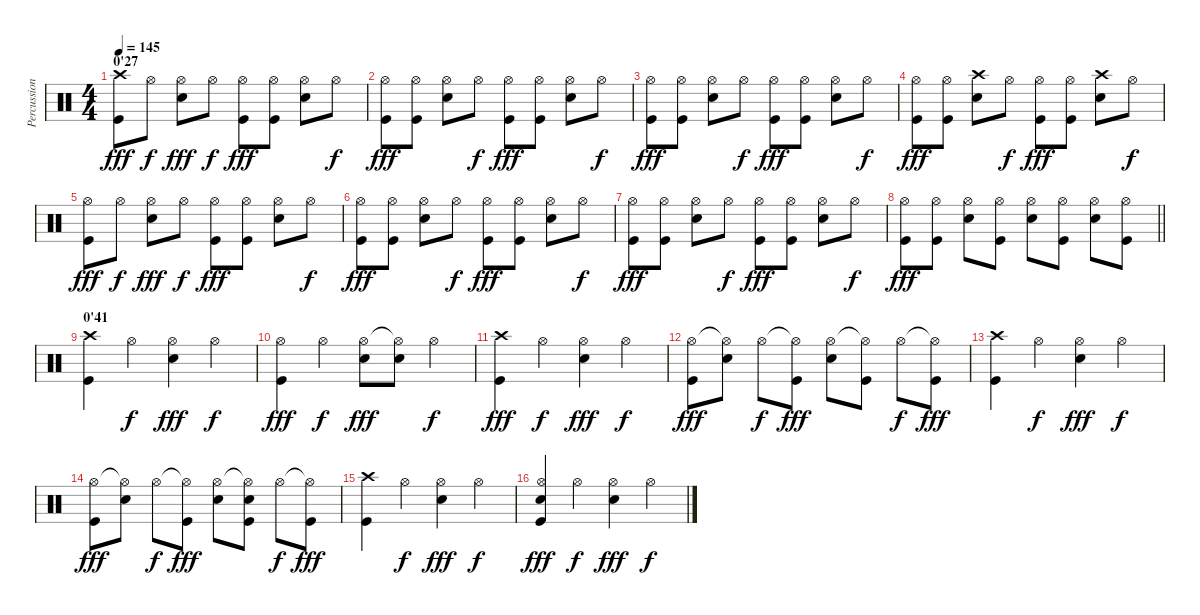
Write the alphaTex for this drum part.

\track ("Percussions" "Percussion") {instrument percussion}
\staff {score}
\articulation defaults
\ts (4 4)
\section ("" "0'27")
\tempo 145
\clef neutral
\ks c
("Crash high (hit)" "Kick (hit)").8{dy fff} "Hi-Hat (open)".8{dy f} ("Hi-Hat (open)" "Electric Snare (hit)").8{dy fff} "Hi-Hat (open)".8{dy f} ("Hi-Hat (open)" "Kick (hit)").8{dy fff} ("Hi-Hat (open)" "Kick (hit)").8 ("Hi-Hat (open)" "Electric Snare (hit)").8 "Hi-Hat (open)".8{dy f} |
("Hi-Hat (open)" "Kick (hit)").8{dy fff} ("Hi-Hat (open)" "Kick (hit)").8 ("Hi-Hat (open)" "Electric Snare (hit)").8 "Hi-Hat (open)".8{dy f} ("Hi-Hat (open)" "Kick (hit)").8{dy fff} ("Hi-Hat (open)" "Kick (hit)").8 ("Hi-Hat (open)" "Electric Snare (hit)").8 "Hi-Hat (open)".8{dy f} |
("Hi-Hat (open)" "Kick (hit)").8{dy fff} ("Hi-Hat (open)" "Kick (hit)").8 ("Hi-Hat (open)" "Electric Snare (hit)").8 "Hi-Hat (open)".8{dy f} ("Hi-Hat (open)" "Kick (hit)").8{dy fff} ("Hi-Hat (open)" "Kick (hit)").8 ("Hi-Hat (open)" "Electric Snare (hit)").8 "Hi-Hat (open)".8{dy f} |
("Hi-Hat (open)" "Kick (hit)").8{dy fff} ("Hi-Hat (open)" "Kick (hit)").8 ("Crash high (hit)" "Electric Snare (hit)").8 "Hi-Hat (open)".8{dy f} ("Hi-Hat (open)" "Kick (hit)").8{dy fff} ("Hi-Hat (open)" "Kick (hit)").8 ("Crash high (hit)" "Electric Snare (hit)").8 "Hi-Hat (open)".8{dy f} |
("Hi-Hat (open)" "Kick (hit)").8{dy fff} "Hi-Hat (open)".8{dy f} ("Hi-Hat (open)" "Electric Snare (hit)").8{dy fff} "Hi-Hat (open)".8{dy f} ("Hi-Hat (open)" "Kick (hit)").8{dy fff} ("Hi-Hat (open)" "Kick (hit)").8 ("Hi-Hat (open)" "Electric Snare (hit)").8 "Hi-Hat (open)".8{dy f} |
("Hi-Hat (open)" "Kick (hit)").8{dy fff} ("Hi-Hat (open)" "Kick (hit)").8 ("Hi-Hat (open)" "Electric Snare (hit)").8 "Hi-Hat (open)".8{dy f} ("Hi-Hat (open)" "Kick (hit)").8{dy fff} ("Hi-Hat (open)" "Kick (hit)").8 ("Hi-Hat (open)" "Electric Snare (hit)").8 "Hi-Hat (open)".8{dy f} |
("Hi-Hat (open)" "Kick (hit)").8{dy fff} ("Hi-Hat (open)" "Kick (hit)").8 ("Hi-Hat (open)" "Electric Snare (hit)").8 "Hi-Hat (open)".8{dy f} ("Hi-Hat (open)" "Kick (hit)").8{dy fff} ("Hi-Hat (open)" "Kick (hit)").8 ("Hi-Hat (open)" "Electric Snare (hit)").8 "Hi-Hat (open)".8{dy f} |
\barLineRight lightlight
("Hi-Hat (open)" "Kick (hit)").8{dy fff} ("Hi-Hat (open)" "Kick (hit)").8 ("Hi-Hat (open)" "Electric Snare (hit)").8 ("Hi-Hat (open)" "Kick (hit)").8 ("Hi-Hat (open)" "Electric Snare (hit)").8 ("Hi-Hat (open)" "Kick (hit)").8 ("Hi-Hat (open)" "Electric Snare (hit)").8 ("Hi-Hat (open)" "Kick (hit)").8 |
\section ("" "0'41")
("Crash high (hit)" "Kick (hit)").4 "Hi-Hat (open)".4{dy f} ("Hi-Hat (open)" "Electric Snare (hit)").4{dy fff} "Hi-Hat (open)".4{dy f} |
("Hi-Hat (open)" "Kick (hit)").4{dy fff} "Hi-Hat (open)".4{dy f} ("Hi-Hat (open)" "Electric Snare (hit)").8{dy fff} ("Hi-Hat (open)"{t} "Electric Snare (hit)").8 "Hi-Hat (open)".4{dy f} |
("Crash high (hit)" "Kick (hit)").4{dy fff} "Hi-Hat (open)".4{dy f} ("Hi-Hat (open)" "Electric Snare (hit)").4{dy fff} "Hi-Hat (open)".4{dy f} |
("Hi-Hat (open)" "Kick (hit)").8{dy fff} ("Hi-Hat (open)"{t} "Electric Snare (hit)").8 "Hi-Hat (open)".8{dy f} ("Hi-Hat (open)"{t} "Kick (hit)").8{dy fff} ("Hi-Hat (open)" "Electric Snare (hit)").8 ("Hi-Hat (open)"{t} "Kick (hit)").8 "Hi-Hat (open)".8{dy f} ("Hi-Hat (open)"{t} "Kick (hit)").8{dy fff} |
("Crash high (hit)" "Kick (hit)").4 "Hi-Hat (open)".4{dy f} ("Hi-Hat (open)" "Electric Snare (hit)").4{dy fff} "Hi-Hat (open)".4{dy f} |
("Hi-Hat (open)" "Kick (hit)").8{dy fff} ("Hi-Hat (open)"{t} "Electric Snare (hit)").8 "Hi-Hat (open)".8{dy f} ("Hi-Hat (open)"{t} "Kick (hit)").8{dy fff} ("Hi-Hat (open)" "Electric Snare (hit)").8 ("Hi-Hat (open)"{t} "Electric Snare (hit)" "Kick (hit)").8 "Hi-Hat (open)".8{dy f} ("Hi-Hat (open)"{t} "Kick (hit)").8{dy fff} |
("Crash high (hit)" "Kick (hit)").4 "Hi-Hat (open)".4{dy f} ("Hi-Hat (open)" "Electric Snare (hit)").4{dy fff} "Hi-Hat (open)".4{dy f} |
("Hi-Hat (open)" "Electric Snare (hit)" "Kick (hit)").4{dy fff} "Hi-Hat (open)".4{dy f} ("Hi-Hat (open)" "Electric Snare (hit)").4{dy fff} "Hi-Hat (open)".4{dy f}
